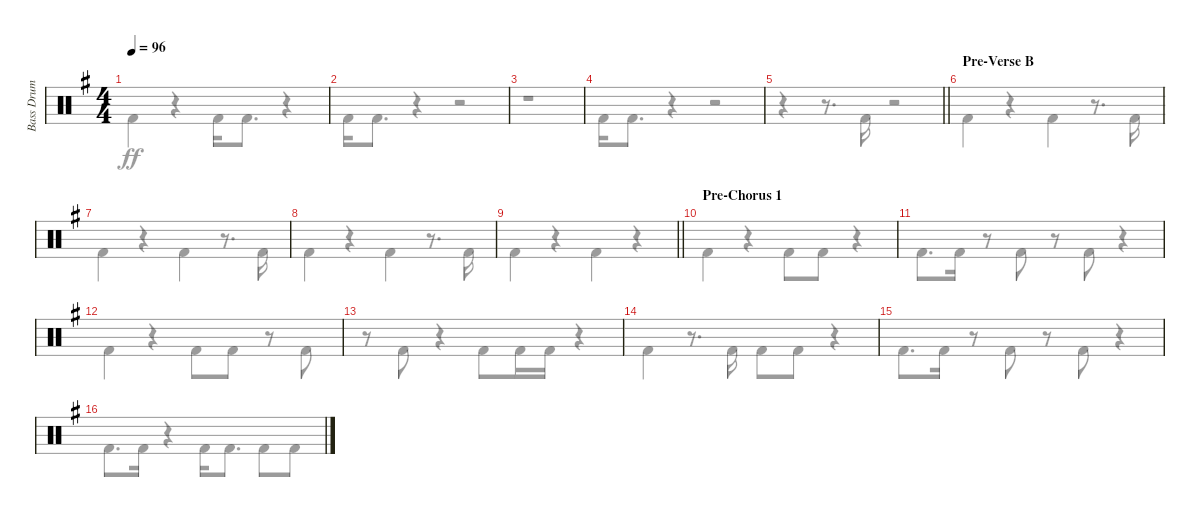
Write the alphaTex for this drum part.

\track ("Bass Drum" "Bass Drum") {instrument percussion}
\staff {score}
\articulation defaults
\voice
\ts (4 4)
\tempo 96
\clef neutral
\ks g
|
|
|
|
\barLineRight lightlight
|
\section ("" "Pre-Verse B")
|
|
|
\barLineRight lightlight
|
\section ("" "Pre-Chorus 1")
|
|
|
|
|
|
\voice
\clef neutral
\ks g "Kick (hit) 2".4{dy ff}
r.4 "Kick (hit) 2".16 "Kick (hit) 2".8{d} r.4 |
"Kick (hit) 2".16 "Kick (hit) 2".8{d} r.4 r.2 |
r.1 |
"Kick (hit) 2".16 "Kick (hit) 2".8{d} r.4 r.2 |
\barLineRight lightlight
r.4 r.8{d} "Kick (hit) 2".16 r.2 |
"Kick (hit) 2".4 r.4 "Kick (hit) 2".4 r.8{d} "Kick (hit) 2".16 |
"Kick (hit) 2".4 r.4 "Kick (hit) 2".4 r.8{d} "Kick (hit) 2".16 |
"Kick (hit) 2".4 r.4 "Kick (hit) 2".4 r.8{d} "Kick (hit) 2".16 |
\barLineRight lightlight "Kick (hit) 2".4
r.4 "Kick (hit) 2".4 r.4 |
"Kick (hit) 2".4 r.4 "Kick (hit) 2".8 "Kick (hit) 2".8 r.4 |
"Kick (hit) 2".8{d} "Kick (hit) 2".16 r.8 "Kick (hit) 2".8 r.8 "Kick (hit) 2".8 r.4 |
"Kick (hit) 2".4 r.4 "Kick (hit) 2".8 "Kick (hit) 2".8 r.8 "Kick (hit) 2".8 |
r.8 "Kick (hit) 2".8 r.4 "Kick (hit) 2".8 "Kick (hit) 2".16 "Kick (hit) 2".16 r.4 |
"Kick (hit) 2".4 r.8{d} "Kick (hit) 2".16 "Kick (hit) 2".8 "Kick (hit) 2".8 r.4 |
"Kick (hit) 2".8{d} "Kick (hit) 2".16 r.8 "Kick (hit) 2".8 r.8 "Kick (hit) 2".8 r.4 |
"Kick (hit) 2".8{d} "Kick (hit) 2".16 r.4 "Kick (hit) 2".16 "Kick (hit) 2".8{d} "Kick (hit) 2".8 "Kick (hit) 2".8
